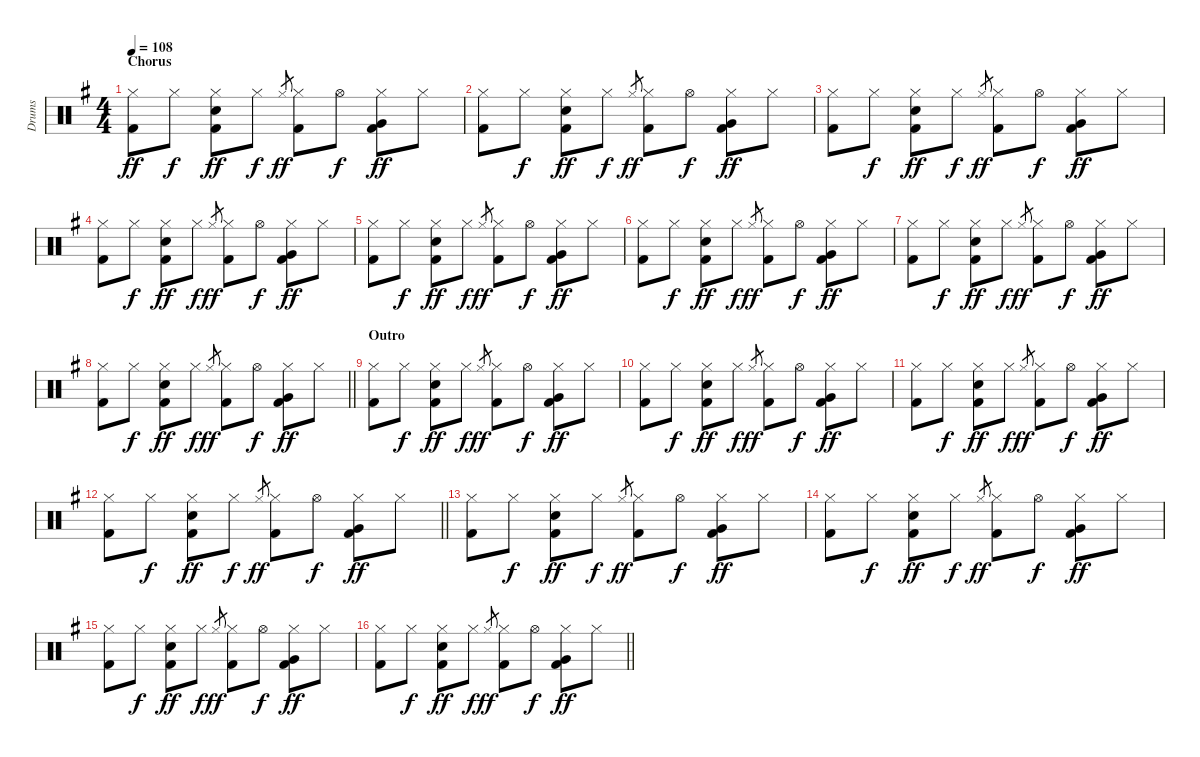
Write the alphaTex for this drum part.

\track ("Drums" "Drums") {instrument percussion}
\staff {score}
\articulation defaults
\ts (4 4)
\section ("" "Chorus")
\tempo 108
\clef neutral
\ks g
("Hi-Hat (closed)" "Kick (hit) 2").8{dy ff} "Hi-Hat (closed)".8{dy f} ("Hi-Hat (closed)" "Snare (hit) 2" "Kick (hit) 2").8{dy ff} "Hi-Hat (closed)".8{dy f} "Hi-Hat (closed)".8{gr dy ff} ("Hi-Hat (closed)" "Kick (hit) 2").8 "Hi-Hat (open)".8{dy f} ("Hi-Hat (closed)" "Very Low Tom (hit)" "Kick (hit) 2").8{dy ff} "Hi-Hat (closed)".8 |
("Hi-Hat (closed)" "Kick (hit) 2").8 "Hi-Hat (closed)".8{dy f} ("Hi-Hat (closed)" "Snare (hit) 2" "Kick (hit) 2").8{dy ff} "Hi-Hat (closed)".8{dy f} "Hi-Hat (closed)".8{gr dy ff} ("Hi-Hat (closed)" "Kick (hit) 2").8 "Hi-Hat (open)".8{dy f} ("Hi-Hat (closed)" "Very Low Tom (hit)" "Kick (hit) 2").8{dy ff} "Hi-Hat (closed)".8 |
("Hi-Hat (closed)" "Kick (hit) 2").8 "Hi-Hat (closed)".8{dy f} ("Hi-Hat (closed)" "Snare (hit) 2" "Kick (hit) 2").8{dy ff} "Hi-Hat (closed)".8{dy f} "Hi-Hat (closed)".8{gr dy ff} ("Hi-Hat (closed)" "Kick (hit) 2").8 "Hi-Hat (open)".8{dy f} ("Hi-Hat (closed)" "Very Low Tom (hit)" "Kick (hit) 2").8{dy ff} "Hi-Hat (closed)".8 |
("Hi-Hat (closed)" "Kick (hit) 2").8 "Hi-Hat (closed)".8{dy f} ("Hi-Hat (closed)" "Snare (hit) 2" "Kick (hit) 2").8{dy ff} "Hi-Hat (closed)".8{dy f} "Hi-Hat (closed)".8{gr dy ff} ("Hi-Hat (closed)" "Kick (hit) 2").8 "Hi-Hat (open)".8{dy f} ("Hi-Hat (closed)" "Very Low Tom (hit)" "Kick (hit) 2").8{dy ff} "Hi-Hat (closed)".8 |
("Hi-Hat (closed)" "Kick (hit) 2").8 "Hi-Hat (closed)".8{dy f} ("Hi-Hat (closed)" "Snare (hit) 2" "Kick (hit) 2").8{dy ff} "Hi-Hat (closed)".8{dy f} "Hi-Hat (closed)".8{gr dy ff} ("Hi-Hat (closed)" "Kick (hit) 2").8 "Hi-Hat (open)".8{dy f} ("Hi-Hat (closed)" "Very Low Tom (hit)" "Kick (hit) 2").8{dy ff} "Hi-Hat (closed)".8 |
("Hi-Hat (closed)" "Kick (hit) 2").8 "Hi-Hat (closed)".8{dy f} ("Hi-Hat (closed)" "Snare (hit) 2" "Kick (hit) 2").8{dy ff} "Hi-Hat (closed)".8{dy f} "Hi-Hat (closed)".8{gr dy ff} ("Hi-Hat (closed)" "Kick (hit) 2").8 "Hi-Hat (open)".8{dy f} ("Hi-Hat (closed)" "Very Low Tom (hit)" "Kick (hit) 2").8{dy ff} "Hi-Hat (closed)".8 |
("Hi-Hat (closed)" "Kick (hit) 2").8 "Hi-Hat (closed)".8{dy f} ("Hi-Hat (closed)" "Snare (hit) 2" "Kick (hit) 2").8{dy ff} "Hi-Hat (closed)".8{dy f} "Hi-Hat (closed)".8{gr dy ff} ("Hi-Hat (closed)" "Kick (hit) 2").8 "Hi-Hat (open)".8{dy f} ("Hi-Hat (closed)" "Very Low Tom (hit)" "Kick (hit) 2").8{dy ff} "Hi-Hat (closed)".8 |
\barLineRight lightlight
("Hi-Hat (closed)" "Kick (hit) 2").8 "Hi-Hat (closed)".8{dy f} ("Hi-Hat (closed)" "Snare (hit) 2" "Kick (hit) 2").8{dy ff} "Hi-Hat (closed)".8{dy f} "Hi-Hat (closed)".8{gr dy ff} ("Hi-Hat (closed)" "Kick (hit) 2").8 "Hi-Hat (open)".8{dy f} ("Hi-Hat (closed)" "Very Low Tom (hit)" "Kick (hit) 2").8{dy ff} "Hi-Hat (closed)".8 |
\section ("" "Outro")
("Hi-Hat (closed)" "Kick (hit) 2").8 "Hi-Hat (closed)".8{dy f} ("Hi-Hat (closed)" "Snare (hit) 2" "Kick (hit) 2").8{dy ff} "Hi-Hat (closed)".8{dy f} "Hi-Hat (closed)".8{gr dy ff} ("Hi-Hat (closed)" "Kick (hit) 2").8 "Hi-Hat (open)".8{dy f} ("Hi-Hat (closed)" "Very Low Tom (hit)" "Kick (hit) 2").8{dy ff} "Hi-Hat (closed)".8 |
("Hi-Hat (closed)" "Kick (hit) 2").8 "Hi-Hat (closed)".8{dy f} ("Hi-Hat (closed)" "Snare (hit) 2" "Kick (hit) 2").8{dy ff} "Hi-Hat (closed)".8{dy f} "Hi-Hat (closed)".8{gr dy ff} ("Hi-Hat (closed)" "Kick (hit) 2").8 "Hi-Hat (open)".8{dy f} ("Hi-Hat (closed)" "Very Low Tom (hit)" "Kick (hit) 2").8{dy ff} "Hi-Hat (closed)".8 |
("Hi-Hat (closed)" "Kick (hit) 2").8 "Hi-Hat (closed)".8{dy f} ("Hi-Hat (closed)" "Snare (hit) 2" "Kick (hit) 2").8{dy ff} "Hi-Hat (closed)".8{dy f} "Hi-Hat (closed)".8{gr dy ff} ("Hi-Hat (closed)" "Kick (hit) 2").8 "Hi-Hat (open)".8{dy f} ("Hi-Hat (closed)" "Very Low Tom (hit)" "Kick (hit) 2").8{dy ff} "Hi-Hat (closed)".8 |
\barLineRight lightlight
("Hi-Hat (closed)" "Kick (hit) 2").8 "Hi-Hat (closed)".8{dy f} ("Hi-Hat (closed)" "Snare (hit) 2" "Kick (hit) 2").8{dy ff} "Hi-Hat (closed)".8{dy f} "Hi-Hat (closed)".8{gr dy ff} ("Hi-Hat (closed)" "Kick (hit) 2").8 "Hi-Hat (open)".8{dy f} ("Hi-Hat (closed)" "Very Low Tom (hit)" "Kick (hit) 2").8{dy ff} "Hi-Hat (closed)".8 |
("Hi-Hat (closed)" "Kick (hit) 2").8 "Hi-Hat (closed)".8{dy f} ("Hi-Hat (closed)" "Snare (hit) 2" "Kick (hit) 2").8{dy ff} "Hi-Hat (closed)".8{dy f} "Hi-Hat (closed)".8{gr dy ff} ("Hi-Hat (closed)" "Kick (hit) 2").8 "Hi-Hat (open)".8{dy f} ("Hi-Hat (closed)" "Very Low Tom (hit)" "Kick (hit) 2").8{dy ff} "Hi-Hat (closed)".8 |
("Hi-Hat (closed)" "Kick (hit) 2").8 "Hi-Hat (closed)".8{dy f} ("Hi-Hat (closed)" "Snare (hit) 2" "Kick (hit) 2").8{dy ff} "Hi-Hat (closed)".8{dy f} "Hi-Hat (closed)".8{gr dy ff} ("Hi-Hat (closed)" "Kick (hit) 2").8 "Hi-Hat (open)".8{dy f} ("Hi-Hat (closed)" "Very Low Tom (hit)" "Kick (hit) 2").8{dy ff} "Hi-Hat (closed)".8 |
("Hi-Hat (closed)" "Kick (hit) 2").8 "Hi-Hat (closed)".8{dy f} ("Hi-Hat (closed)" "Snare (hit) 2" "Kick (hit) 2").8{dy ff} "Hi-Hat (closed)".8{dy f} "Hi-Hat (closed)".8{gr dy ff} ("Hi-Hat (closed)" "Kick (hit) 2").8 "Hi-Hat (open)".8{dy f} ("Hi-Hat (closed)" "Very Low Tom (hit)" "Kick (hit) 2").8{dy ff} "Hi-Hat (closed)".8 |
\barLineRight lightlight
("Hi-Hat (closed)" "Kick (hit) 2").8 "Hi-Hat (closed)".8{dy f} ("Hi-Hat (closed)" "Snare (hit) 2" "Kick (hit) 2").8{dy ff} "Hi-Hat (closed)".8{dy f} "Hi-Hat (closed)".8{gr dy ff} ("Hi-Hat (closed)" "Kick (hit) 2").8 "Hi-Hat (open)".8{dy f} ("Hi-Hat (closed)" "Very Low Tom (hit)" "Kick (hit) 2").8{dy ff} "Hi-Hat (closed)".8
